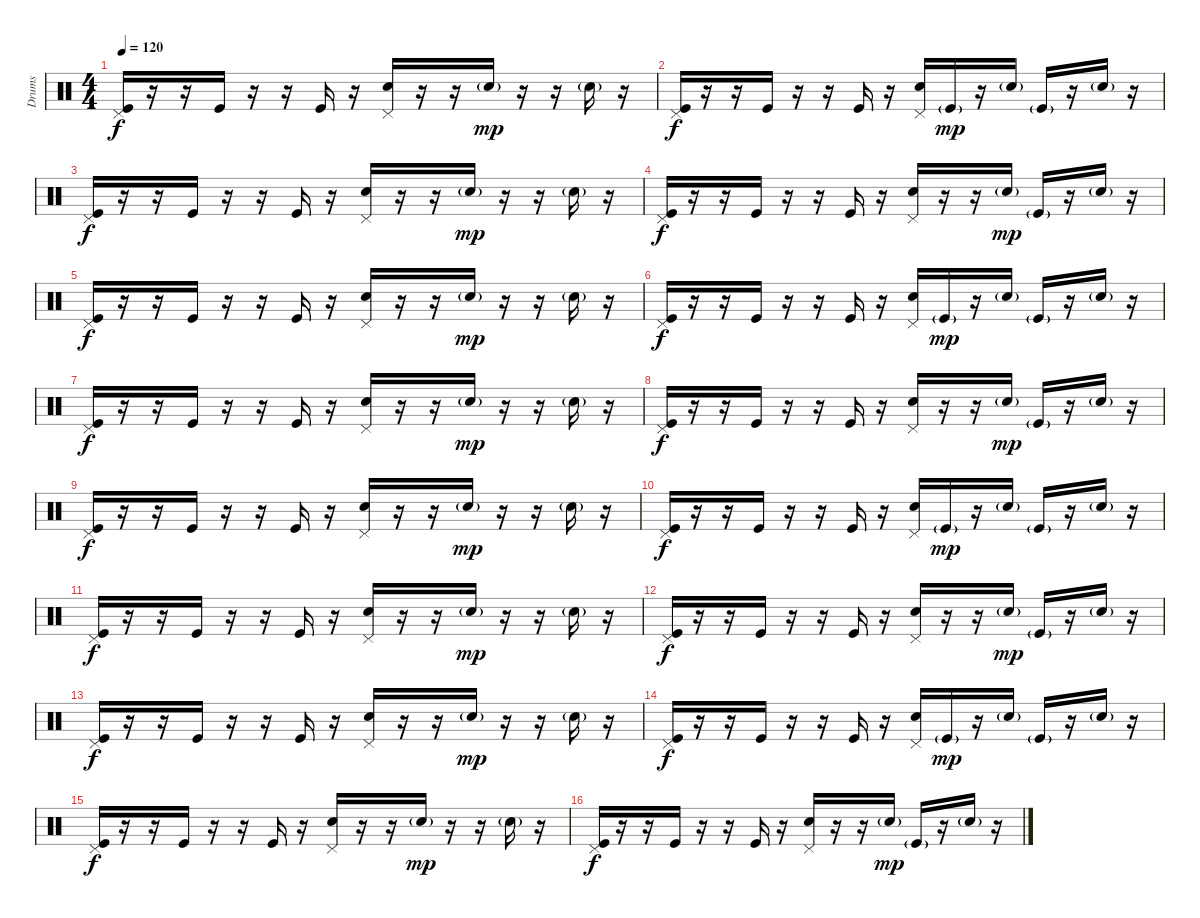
\track ("Drums" "Drums") {instrument percussion}
\staff {score}
\articulation defaults
\ts (4 4)
\tempo 120
\clef neutral
\ks c
("Pedal Hi-Hat (hit)" "Kick (hit)").16{dy f} r.16 r.16 "Kick (hit)".16 r.16 r.16 "Kick (hit)".16 r.16 ("Pedal Hi-Hat (hit)" "Electric Snare (hit)").16 r.16 r.16 "Electric Snare (hit)"{g}.16{dy mp} r.16 r.16 "Electric Snare (hit)"{g}.16 r.16 |
("Pedal Hi-Hat (hit)" "Kick (hit)").16{dy f} r.16 r.16 "Kick (hit)".16 r.16 r.16 "Kick (hit)".16 r.16 ("Pedal Hi-Hat (hit)" "Electric Snare (hit)").16 "Kick (hit)"{g}.16{dy mp} r.16 "Electric Snare (hit)"{g}.16 "Kick (hit)"{g}.16 r.16 "Electric Snare (hit)"{g}.16 r.16 |
("Pedal Hi-Hat (hit)" "Kick (hit)").16{dy f} r.16 r.16 "Kick (hit)".16 r.16 r.16 "Kick (hit)".16 r.16 ("Pedal Hi-Hat (hit)" "Electric Snare (hit)").16 r.16 r.16 "Electric Snare (hit)"{g}.16{dy mp} r.16 r.16 "Electric Snare (hit)"{g}.16 r.16 |
("Pedal Hi-Hat (hit)" "Kick (hit)").16{dy f} r.16 r.16 "Kick (hit)".16 r.16 r.16 "Kick (hit)".16 r.16 ("Pedal Hi-Hat (hit)" "Electric Snare (hit)").16 r.16 r.16 "Electric Snare (hit)"{g}.16{dy mp} "Kick (hit)"{g}.16 r.16 "Electric Snare (hit)"{g}.16 r.16 |
("Pedal Hi-Hat (hit)" "Kick (hit)").16{dy f} r.16 r.16 "Kick (hit)".16 r.16 r.16 "Kick (hit)".16 r.16 ("Pedal Hi-Hat (hit)" "Electric Snare (hit)").16 r.16 r.16 "Electric Snare (hit)"{g}.16{dy mp} r.16 r.16 "Electric Snare (hit)"{g}.16 r.16 |
("Pedal Hi-Hat (hit)" "Kick (hit)").16{dy f} r.16 r.16 "Kick (hit)".16 r.16 r.16 "Kick (hit)".16 r.16 ("Pedal Hi-Hat (hit)" "Electric Snare (hit)").16 "Kick (hit)"{g}.16{dy mp} r.16 "Electric Snare (hit)"{g}.16 "Kick (hit)"{g}.16 r.16 "Electric Snare (hit)"{g}.16 r.16 |
("Pedal Hi-Hat (hit)" "Kick (hit)").16{dy f} r.16 r.16 "Kick (hit)".16 r.16 r.16 "Kick (hit)".16 r.16 ("Pedal Hi-Hat (hit)" "Electric Snare (hit)").16 r.16 r.16 "Electric Snare (hit)"{g}.16{dy mp} r.16 r.16 "Electric Snare (hit)"{g}.16 r.16 |
("Pedal Hi-Hat (hit)" "Kick (hit)").16{dy f} r.16 r.16 "Kick (hit)".16 r.16 r.16 "Kick (hit)".16 r.16 ("Pedal Hi-Hat (hit)" "Electric Snare (hit)").16 r.16 r.16 "Electric Snare (hit)"{g}.16{dy mp} "Kick (hit)"{g}.16 r.16 "Electric Snare (hit)"{g}.16 r.16 |
("Pedal Hi-Hat (hit)" "Kick (hit)").16{dy f} r.16 r.16 "Kick (hit)".16 r.16 r.16 "Kick (hit)".16 r.16 ("Pedal Hi-Hat (hit)" "Electric Snare (hit)").16 r.16 r.16 "Electric Snare (hit)"{g}.16{dy mp} r.16 r.16 "Electric Snare (hit)"{g}.16 r.16 |
("Pedal Hi-Hat (hit)" "Kick (hit)").16{dy f} r.16 r.16 "Kick (hit)".16 r.16 r.16 "Kick (hit)".16 r.16 ("Pedal Hi-Hat (hit)" "Electric Snare (hit)").16 "Kick (hit)"{g}.16{dy mp} r.16 "Electric Snare (hit)"{g}.16 "Kick (hit)"{g}.16 r.16 "Electric Snare (hit)"{g}.16 r.16 |
("Pedal Hi-Hat (hit)" "Kick (hit)").16{dy f} r.16 r.16 "Kick (hit)".16 r.16 r.16 "Kick (hit)".16 r.16 ("Pedal Hi-Hat (hit)" "Electric Snare (hit)").16 r.16 r.16 "Electric Snare (hit)"{g}.16{dy mp} r.16 r.16 "Electric Snare (hit)"{g}.16 r.16 |
("Pedal Hi-Hat (hit)" "Kick (hit)").16{dy f} r.16 r.16 "Kick (hit)".16 r.16 r.16 "Kick (hit)".16 r.16 ("Pedal Hi-Hat (hit)" "Electric Snare (hit)").16 r.16 r.16 "Electric Snare (hit)"{g}.16{dy mp} "Kick (hit)"{g}.16 r.16 "Electric Snare (hit)"{g}.16 r.16 |
("Pedal Hi-Hat (hit)" "Kick (hit)").16{dy f} r.16 r.16 "Kick (hit)".16 r.16 r.16 "Kick (hit)".16 r.16 ("Pedal Hi-Hat (hit)" "Electric Snare (hit)").16 r.16 r.16 "Electric Snare (hit)"{g}.16{dy mp} r.16 r.16 "Electric Snare (hit)"{g}.16 r.16 |
("Pedal Hi-Hat (hit)" "Kick (hit)").16{dy f} r.16 r.16 "Kick (hit)".16 r.16 r.16 "Kick (hit)".16 r.16 ("Pedal Hi-Hat (hit)" "Electric Snare (hit)").16 "Kick (hit)"{g}.16{dy mp} r.16 "Electric Snare (hit)"{g}.16 "Kick (hit)"{g}.16 r.16 "Electric Snare (hit)"{g}.16 r.16 |
("Pedal Hi-Hat (hit)" "Kick (hit)").16{dy f} r.16 r.16 "Kick (hit)".16 r.16 r.16 "Kick (hit)".16 r.16 ("Pedal Hi-Hat (hit)" "Electric Snare (hit)").16 r.16 r.16 "Electric Snare (hit)"{g}.16{dy mp} r.16 r.16 "Electric Snare (hit)"{g}.16 r.16 |
("Pedal Hi-Hat (hit)" "Kick (hit)").16{dy f} r.16 r.16 "Kick (hit)".16 r.16 r.16 "Kick (hit)".16 r.16 ("Pedal Hi-Hat (hit)" "Electric Snare (hit)").16 r.16 r.16 "Electric Snare (hit)"{g}.16{dy mp} "Kick (hit)"{g}.16 r.16 "Electric Snare (hit)"{g}.16 r.16
